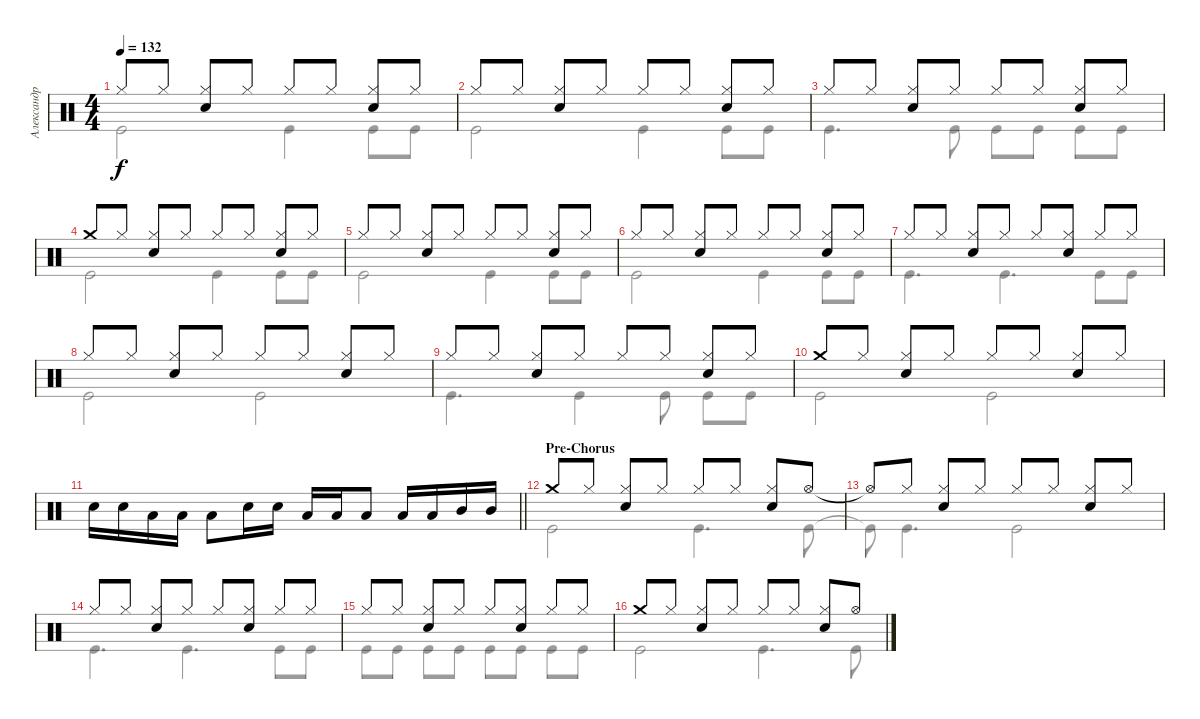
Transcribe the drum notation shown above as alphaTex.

\track ("Александр Манякин" "Александр ") {instrument percussion}
\staff {score}
\articulation defaults
\voice
\ts (4 4)
\tempo 132
\clef neutral
\ks c "Hi-Hat (closed)".8{dy f} "Hi-Hat (closed)".8
("Hi-Hat (closed)" "Snare (hit) 2").8 "Hi-Hat (closed)".8 "Hi-Hat (closed)".8 "Hi-Hat (closed)".8 ("Hi-Hat (closed)" "Snare (hit) 2").8 "Hi-Hat (closed)".8 |
"Hi-Hat (closed)".8 "Hi-Hat (closed)".8 ("Hi-Hat (closed)" "Snare (hit) 2").8 "Hi-Hat (closed)".8 "Hi-Hat (closed)".8 "Hi-Hat (closed)".8 ("Hi-Hat (closed)" "Snare (hit) 2").8 "Hi-Hat (closed)".8 |
"Hi-Hat (closed)".8 "Hi-Hat (closed)".8 ("Hi-Hat (closed)" "Snare (hit) 2").8 "Hi-Hat (closed)".8 "Hi-Hat (closed)".8 "Hi-Hat (closed)".8 ("Hi-Hat (closed)" "Snare (hit) 2").8 "Hi-Hat (closed)".8 |
"Crash medium (hit)".8 "Hi-Hat (closed)".8 ("Hi-Hat (closed)" "Snare (hit) 2").8 "Hi-Hat (closed)".8 "Hi-Hat (closed)".8 "Hi-Hat (closed)".8 ("Hi-Hat (closed)" "Snare (hit) 2").8 "Hi-Hat (closed)".8 |
"Hi-Hat (closed)".8 "Hi-Hat (closed)".8 ("Hi-Hat (closed)" "Snare (hit) 2").8 "Hi-Hat (closed)".8 "Hi-Hat (closed)".8 "Hi-Hat (closed)".8 ("Hi-Hat (closed)" "Snare (hit) 2").8 "Hi-Hat (closed)".8 |
"Hi-Hat (closed)".8 "Hi-Hat (closed)".8 ("Hi-Hat (closed)" "Snare (hit) 2").8 "Hi-Hat (closed)".8 "Hi-Hat (closed)".8 "Hi-Hat (closed)".8 ("Hi-Hat (closed)" "Snare (hit) 2").8 "Hi-Hat (closed)".8 |
"Hi-Hat (closed)".8 "Hi-Hat (closed)".8 ("Hi-Hat (closed)" "Snare (hit) 2").8 "Hi-Hat (closed)".8 "Hi-Hat (closed)".8 ("Hi-Hat (closed)" "Snare (hit) 2").8 "Hi-Hat (closed)".8 "Hi-Hat (closed)".8 |
"Hi-Hat (closed)".8 "Hi-Hat (closed)".8 ("Hi-Hat (closed)" "Snare (hit) 2").8 "Hi-Hat (closed)".8 "Hi-Hat (closed)".8 "Hi-Hat (closed)".8 ("Hi-Hat (closed)" "Snare (hit) 2").8 "Hi-Hat (closed)".8 |
"Hi-Hat (closed)".8 "Hi-Hat (closed)".8 ("Hi-Hat (closed)" "Snare (hit) 2").8 "Hi-Hat (closed)".8 "Hi-Hat (closed)".8 "Hi-Hat (closed)".8 ("Hi-Hat (closed)" "Snare (hit) 2").8 "Hi-Hat (closed)".8 |
"Crash medium (hit)".8 "Hi-Hat (closed)".8 ("Hi-Hat (closed)" "Snare (hit) 2").8 "Hi-Hat (closed)".8 "Hi-Hat (closed)".8 "Hi-Hat (closed)".8 ("Hi-Hat (closed)" "Snare (hit) 2").8 "Hi-Hat (closed)".8 |
\barLineRight lightlight "Snare (hit) 2".16 "Snare (hit) 2".16 "Low Tom (hit)".16 "Low Tom (hit)".16 "Low Tom (hit)".8 "Snare (hit) 2".16 "Snare (hit) 2".16 "Low Tom (hit)".16 "Low Tom (hit)".16 "Low Tom (hit)".8 "Low Tom (hit)".16 "Low Tom (hit)".16 "Mid Tom (hit)".16 "Mid Tom (hit)".16
|
\section ("" "Pre-Chorus")
"Crash medium (hit)".8 "Hi-Hat (closed)".8 ("Hi-Hat (closed)" "Snare (hit) 2").8 "Hi-Hat (closed)".8 "Hi-Hat (closed)".8 "Hi-Hat (closed)".8 ("Hi-Hat (closed)" "Snare (hit) 2").8 "Hi-Hat (open)".8 |
"Hi-Hat (open)"{t}.8 "Hi-Hat (closed)".8 ("Hi-Hat (closed)" "Snare (hit) 2").8 "Hi-Hat (closed)".8 "Hi-Hat (closed)".8 "Hi-Hat (closed)".8 ("Hi-Hat (closed)" "Snare (hit) 2").8 "Hi-Hat (closed)".8 |
"Hi-Hat (closed)".8 "Hi-Hat (closed)".8 ("Hi-Hat (closed)" "Snare (hit) 2").8 "Hi-Hat (closed)".8 "Hi-Hat (closed)".8 ("Hi-Hat (closed)" "Snare (hit) 2").8 "Hi-Hat (closed)".8 "Hi-Hat (closed)".8 |
"Hi-Hat (closed)".8 "Hi-Hat (closed)".8 ("Hi-Hat (closed)" "Snare (hit) 2").8 "Hi-Hat (closed)".8 "Hi-Hat (closed)".8 ("Hi-Hat (closed)" "Snare (hit) 2").8 "Hi-Hat (closed)".8 "Hi-Hat (closed)".8 |
"Crash medium (hit)".8 "Hi-Hat (closed)".8 ("Hi-Hat (closed)" "Snare (hit) 2").8 "Hi-Hat (closed)".8 "Hi-Hat (closed)".8 "Hi-Hat (closed)".8 ("Hi-Hat (closed)" "Snare (hit) 2").8 "Hi-Hat (open)".8
\voice
\clef neutral
\ottava regular
\simile none
\ks c "Kick (hit)".2{dy f} "Kick (hit)".4 "Kick (hit)".8 "Kick (hit)".8
|
"Kick (hit)".2 "Kick (hit)".4 "Kick (hit)".8 "Kick (hit)".8 |
"Kick (hit)".4{d} "Kick (hit)".8 "Kick (hit)".8 "Kick (hit)".8 "Kick (hit)".8 "Kick (hit)".8 |
"Kick (hit)".2 "Kick (hit)".4 "Kick (hit)".8 "Kick (hit)".8 |
"Kick (hit)".2 "Kick (hit)".4 "Kick (hit)".8 "Kick (hit)".8 |
"Kick (hit)".2 "Kick (hit)".4 "Kick (hit)".8 "Kick (hit)".8 |
"Kick (hit)".4{d} "Kick (hit)".4{d} "Kick (hit)".8 "Kick (hit)".8 |
"Kick (hit)".2 "Kick (hit)".2 |
"Kick (hit)".4{d} "Kick (hit)".4 "Kick (hit)".8 "Kick (hit)".8 "Kick (hit)".8 |
"Kick (hit)".2 "Kick (hit)".2 |
\barLineRight lightlight
|
"Kick (hit)".2 "Kick (hit)".4{d} "Kick (hit)".8 |
"Kick (hit)"{t}.8 "Kick (hit)".4{d} "Kick (hit)".2 |
"Kick (hit)".4{d} "Kick (hit)".4{d} "Kick (hit)".8 "Kick (hit)".8 |
"Kick (hit)".8 "Kick (hit)".8 "Kick (hit)".8 "Kick (hit)".8 "Kick (hit)".8 "Kick (hit)".8 "Kick (hit)".8 "Kick (hit)".8 |
"Kick (hit)".2 "Kick (hit)".4{d} "Kick (hit)".8
